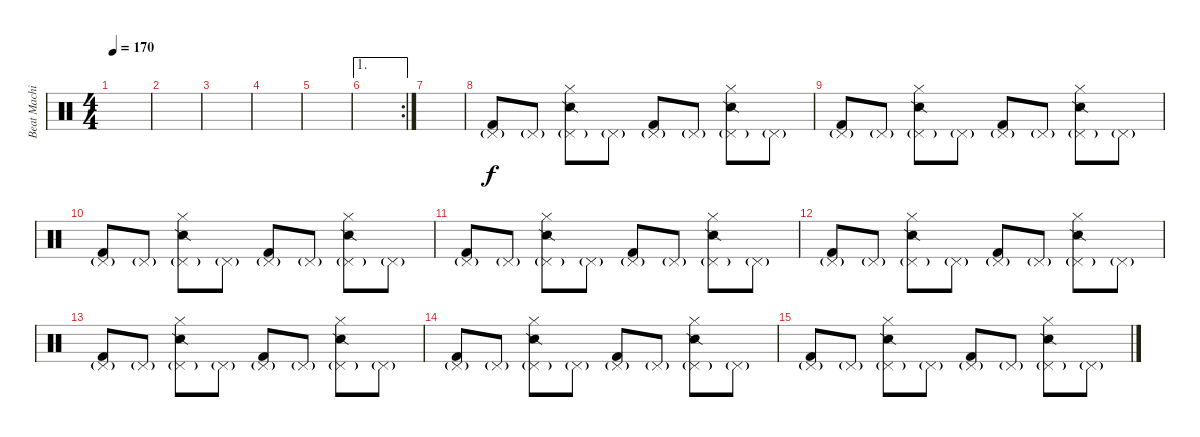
\track ("Beat Machine" "Beat Machi") {instrument percussion}
\staff {score}
\articulation defaults
\ts (4 4)
\tempo 170
\clef neutral
\ks c
|
|
|
|
|
\ae 1
\rc 2
|
|
("Pedal Hi-Hat (hit)"{g} "Kick (hit) 2").8 "Pedal Hi-Hat (hit)"{g}.8 ("Pedal Hi-Hat (hit)"{g} "Snare (side stick) 2" "Hi-Hat (closed)").8 "Pedal Hi-Hat (hit)"{g}.8 ("Pedal Hi-Hat (hit)"{g} "Kick (hit) 2").8 "Pedal Hi-Hat (hit)"{g}.8 ("Pedal Hi-Hat (hit)"{g} "Snare (side stick) 2" "Hi-Hat (closed)").8 "Pedal Hi-Hat (hit)"{g}.8 |
("Pedal Hi-Hat (hit)"{g} "Kick (hit) 2").8 "Pedal Hi-Hat (hit)"{g}.8 ("Pedal Hi-Hat (hit)"{g} "Snare (side stick) 2" "Hi-Hat (closed)").8 "Pedal Hi-Hat (hit)"{g}.8 ("Pedal Hi-Hat (hit)"{g} "Kick (hit) 2").8 "Pedal Hi-Hat (hit)"{g}.8 ("Pedal Hi-Hat (hit)"{g} "Snare (side stick) 2" "Hi-Hat (closed)").8 "Pedal Hi-Hat (hit)"{g}.8 |
("Pedal Hi-Hat (hit)"{g} "Kick (hit) 2").8 "Pedal Hi-Hat (hit)"{g}.8 ("Pedal Hi-Hat (hit)"{g} "Snare (side stick) 2" "Hi-Hat (closed)").8 "Pedal Hi-Hat (hit)"{g}.8 ("Pedal Hi-Hat (hit)"{g} "Kick (hit) 2").8 "Pedal Hi-Hat (hit)"{g}.8 ("Pedal Hi-Hat (hit)"{g} "Snare (side stick) 2" "Hi-Hat (closed)").8 "Pedal Hi-Hat (hit)"{g}.8 |
("Pedal Hi-Hat (hit)"{g} "Kick (hit) 2").8 "Pedal Hi-Hat (hit)"{g}.8 ("Pedal Hi-Hat (hit)"{g} "Snare (side stick) 2" "Hi-Hat (closed)").8 "Pedal Hi-Hat (hit)"{g}.8 ("Pedal Hi-Hat (hit)"{g} "Kick (hit) 2").8 "Pedal Hi-Hat (hit)"{g}.8 ("Pedal Hi-Hat (hit)"{g} "Snare (side stick) 2" "Hi-Hat (closed)").8 "Pedal Hi-Hat (hit)"{g}.8 |
("Pedal Hi-Hat (hit)"{g} "Kick (hit) 2").8 "Pedal Hi-Hat (hit)"{g}.8 ("Pedal Hi-Hat (hit)"{g} "Snare (side stick) 2" "Hi-Hat (closed)").8 "Pedal Hi-Hat (hit)"{g}.8 ("Pedal Hi-Hat (hit)"{g} "Kick (hit) 2").8 "Pedal Hi-Hat (hit)"{g}.8 ("Pedal Hi-Hat (hit)"{g} "Snare (side stick) 2" "Hi-Hat (closed)").8 "Pedal Hi-Hat (hit)"{g}.8 |
("Pedal Hi-Hat (hit)"{g} "Kick (hit) 2").8 "Pedal Hi-Hat (hit)"{g}.8 ("Pedal Hi-Hat (hit)"{g} "Snare (side stick) 2" "Hi-Hat (closed)").8 "Pedal Hi-Hat (hit)"{g}.8 ("Pedal Hi-Hat (hit)"{g} "Kick (hit) 2").8 "Pedal Hi-Hat (hit)"{g}.8 ("Pedal Hi-Hat (hit)"{g} "Snare (side stick) 2" "Hi-Hat (closed)").8 "Pedal Hi-Hat (hit)"{g}.8 |
("Pedal Hi-Hat (hit)"{g} "Kick (hit) 2").8 "Pedal Hi-Hat (hit)"{g}.8 ("Pedal Hi-Hat (hit)"{g} "Snare (side stick) 2" "Hi-Hat (closed)").8 "Pedal Hi-Hat (hit)"{g}.8 ("Pedal Hi-Hat (hit)"{g} "Kick (hit) 2").8 "Pedal Hi-Hat (hit)"{g}.8 ("Pedal Hi-Hat (hit)"{g} "Snare (side stick) 2" "Hi-Hat (closed)").8 "Pedal Hi-Hat (hit)"{g}.8 |
("Pedal Hi-Hat (hit)"{g} "Kick (hit) 2").8 "Pedal Hi-Hat (hit)"{g}.8 ("Pedal Hi-Hat (hit)"{g} "Snare (side stick) 2" "Hi-Hat (closed)").8 "Pedal Hi-Hat (hit)"{g}.8 ("Pedal Hi-Hat (hit)"{g} "Kick (hit) 2").8 "Pedal Hi-Hat (hit)"{g}.8 ("Pedal Hi-Hat (hit)"{g} "Snare (side stick) 2" "Hi-Hat (closed)").8 "Pedal Hi-Hat (hit)"{g}.8
